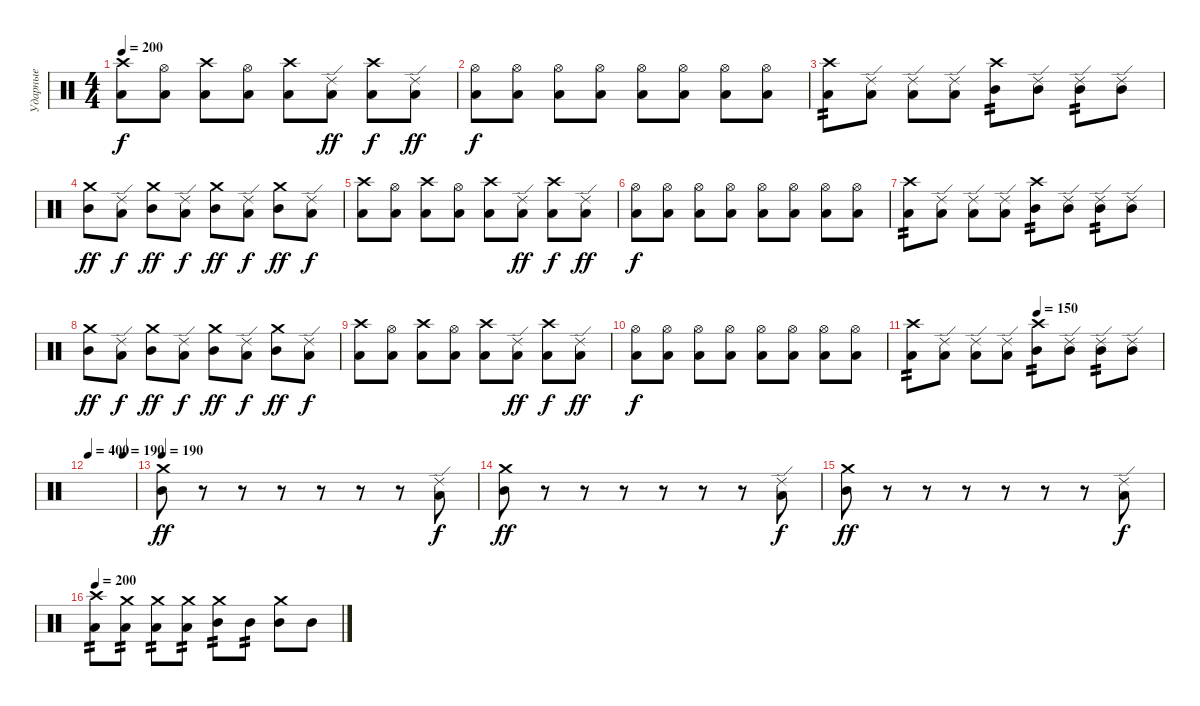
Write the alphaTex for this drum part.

\track ("Ударные" "Ударные") {instrument percussion}
\staff {score}
\articulation defaults
\ts (4 4)
\tempo 200
\clef neutral
\ks c
("Crash high (hit)" "Low Tom (hit)").8{dy f} ("Hi-Hat (open)" "Low Floor Tom (hit)").8 ("Crash high (hit)" "Low Tom (hit)").8 ("Hi-Hat (open)" "Low Floor Tom (hit)").8 ("Crash high (hit)" "Low Tom (hit)").8 ("Ride (edge) 2" "Low Floor Tom (hit)").8{dy ff} ("Crash high (hit)" "Low Tom (hit)").8{dy f} ("Ride (edge) 2" "Low Floor Tom (hit)").8{dy ff} |
("Hi-Hat (open)" "Low Tom (hit)").8{dy f} ("Hi-Hat (open)" "Low Tom (hit)").8 ("Hi-Hat (open)" "Low Tom (hit)").8 ("Hi-Hat (open)" "Low Tom (hit)").8 ("Hi-Hat (open)" "Low Tom (hit)").8 ("Hi-Hat (open)" "Low Tom (hit)").8 ("Hi-Hat (open)" "Low Tom (hit)").8 ("Hi-Hat (open)" "Low Tom (hit)").8 |
("Crash high (hit)" "Low Tom (hit)").8{tp 2} ("Ride (edge) 2" "Low Tom (hit)").8 ("Ride (edge) 2" "Low Tom (hit)").8 ("Ride (edge) 2" "Low Tom (hit)").8 ("Crash high (hit)" "Mid Tom (hit)").8{tp 2} ("Ride (edge) 2" "Mid Tom (hit)").8 ("Ride (edge) 2" "Mid Tom (hit)").8{tp 2} ("Ride (edge) 2" "Mid Tom (hit)").8 |
("Crash medium (hit)" "Mid Tom (hit)").8{dy ff} ("Ride (edge) 2" "Low Tom (hit)").8{dy f} ("Crash medium (hit)" "Mid Tom (hit)").8{dy ff} ("Ride (edge) 2" "Low Tom (hit)").8{dy f} ("Crash medium (hit)" "Mid Tom (hit)").8{dy ff} ("Ride (edge) 2" "Low Tom (hit)").8{dy f} ("Crash medium (hit)" "Mid Tom (hit)").8{dy ff} ("Ride (edge) 2" "Low Tom (hit)").8{dy f} |
("Crash high (hit)" "Low Tom (hit)").8 ("Hi-Hat (open)" "Low Floor Tom (hit)").8 ("Crash high (hit)" "Low Tom (hit)").8 ("Hi-Hat (open)" "Low Floor Tom (hit)").8 ("Crash high (hit)" "Low Tom (hit)").8 ("Ride (edge) 2" "Low Floor Tom (hit)").8{dy ff} ("Crash high (hit)" "Low Tom (hit)").8{dy f} ("Ride (edge) 2" "Low Floor Tom (hit)").8{dy ff} |
("Hi-Hat (open)" "Low Tom (hit)").8{dy f} ("Hi-Hat (open)" "Low Tom (hit)").8 ("Hi-Hat (open)" "Low Tom (hit)").8 ("Hi-Hat (open)" "Low Tom (hit)").8 ("Hi-Hat (open)" "Low Tom (hit)").8 ("Hi-Hat (open)" "Low Tom (hit)").8 ("Hi-Hat (open)" "Low Tom (hit)").8 ("Hi-Hat (open)" "Low Tom (hit)").8 |
("Crash high (hit)" "Low Tom (hit)").8{tp 2} ("Ride (edge) 2" "Low Tom (hit)").8 ("Ride (edge) 2" "Low Tom (hit)").8 ("Ride (edge) 2" "Low Tom (hit)").8 ("Crash high (hit)" "Mid Tom (hit)").8{tp 2} ("Ride (edge) 2" "Mid Tom (hit)").8 ("Ride (edge) 2" "Mid Tom (hit)").8{tp 2} ("Ride (edge) 2" "Mid Tom (hit)").8 |
("Crash medium (hit)" "Mid Tom (hit)").8{dy ff} ("Ride (edge) 2" "Low Tom (hit)").8{dy f} ("Crash medium (hit)" "Mid Tom (hit)").8{dy ff} ("Ride (edge) 2" "Low Tom (hit)").8{dy f} ("Crash medium (hit)" "Mid Tom (hit)").8{dy ff} ("Ride (edge) 2" "Low Tom (hit)").8{dy f} ("Crash medium (hit)" "Mid Tom (hit)").8{dy ff} ("Ride (edge) 2" "Low Tom (hit)").8{dy f} |
("Crash high (hit)" "Low Tom (hit)").8 ("Hi-Hat (open)" "Low Floor Tom (hit)").8 ("Crash high (hit)" "Low Tom (hit)").8 ("Hi-Hat (open)" "Low Floor Tom (hit)").8 ("Crash high (hit)" "Low Tom (hit)").8 ("Ride (edge) 2" "Low Floor Tom (hit)").8{dy ff} ("Crash high (hit)" "Low Tom (hit)").8{dy f} ("Ride (edge) 2" "Low Floor Tom (hit)").8{dy ff} |
("Hi-Hat (open)" "Low Tom (hit)").8{dy f} ("Hi-Hat (open)" "Low Tom (hit)").8 ("Hi-Hat (open)" "Low Tom (hit)").8 ("Hi-Hat (open)" "Low Tom (hit)").8 ("Hi-Hat (open)" "Low Tom (hit)").8 ("Hi-Hat (open)" "Low Tom (hit)").8 ("Hi-Hat (open)" "Low Tom (hit)").8 ("Hi-Hat (open)" "Low Tom (hit)").8 |
\tempo (150 0.5)
("Crash high (hit)" "Low Tom (hit)").8{tp 2} ("Ride (edge) 2" "Low Tom (hit)").8 ("Ride (edge) 2" "Low Tom (hit)").8 ("Ride (edge) 2" "Low Tom (hit)").8 ("Crash high (hit)" "Mid Tom (hit)").8{tp 2} ("Ride (edge) 2" "Mid Tom (hit)").8 ("Ride (edge) 2" "Mid Tom (hit)").8{tp 2} ("Ride (edge) 2" "Mid Tom (hit)").8 |
\tempo 400
\tempo (190 0.75)
|
\tempo 190
("Crash medium (hit)" "Mid Tom (hit)").8{dy ff} r.8 r.8 r.8 r.8 r.8 r.8 ("Ride (edge) 2" "Low Floor Tom (hit)").8{dy f} |
("Crash medium (hit)" "Mid Tom (hit)").8{dy ff} r.8 r.8 r.8 r.8 r.8 r.8 ("Ride (edge) 2" "Low Floor Tom (hit)").8{dy f} |
("Crash medium (hit)" "Mid Tom (hit)").8{dy ff} r.8 r.8 r.8 r.8 r.8 r.8 ("Ride (edge) 2" "Low Floor Tom (hit)").8{dy f} |
\tempo 200
("Crash high (hit)" "Low Tom (hit)").8{tp 2} ("Crash medium (hit)" "Low Tom (hit)").8{tp 2} ("Crash medium (hit)" "Low Tom (hit)").8{tp 2} ("Crash medium (hit)" "Low Tom (hit)").8{tp 2} ("Crash medium (hit)" "Mid Tom (hit)").8{tp 2} "Mid Tom (hit)".8{tp 2} ("Crash medium (hit)" "Mid Tom (hit)").8 "Mid Tom (hit)".8
